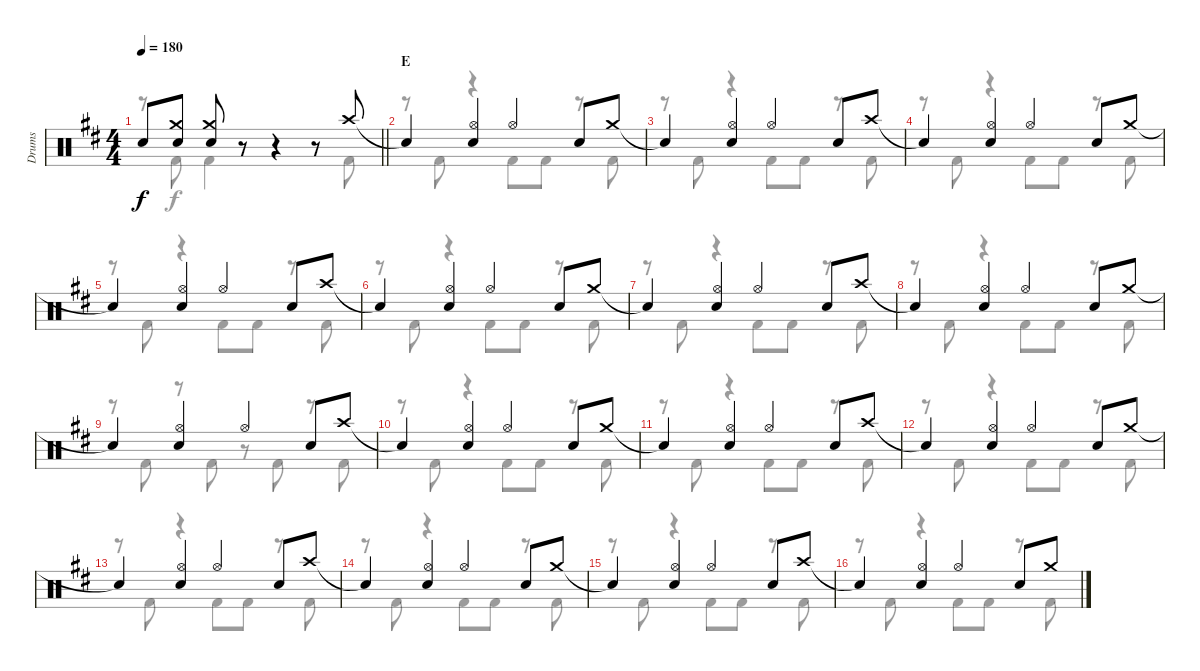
\track ("Drums" "Drums") {instrument percussion}
\staff {score}
\articulation defaults
\voice
\ts (4 4)
\tempo 180
\clef neutral
\barLineRight lightlight
\ks d "Snare (hit)"{t}.8{dy f}
("Crash medium (hit)" "Snare (hit) 2").8 ("Crash medium (hit)" "Snare (hit) 2").8 r.8 r.4 r.8 "Crash high (hit)".8 |
\section ("" "E")
"Snare (hit)"{t}.4 ("Hi-Hat (open)" "Snare (hit) 2").4 "Hi-Hat (open)".4 "Snare (hit) 2".8 "Crash medium (hit)".8 |
"Snare (hit)"{t}.4 ("Hi-Hat (open)" "Snare (hit) 2").4 "Hi-Hat (open)".4 "Snare (hit) 2".8 "Crash high (hit)".8 |
"Snare (hit)"{t}.4 ("Hi-Hat (open)" "Snare (hit) 2").4 "Hi-Hat (open)".4 "Snare (hit) 2".8 "Crash medium (hit)".8 |
"Snare (hit)"{t}.4 ("Hi-Hat (open)" "Snare (hit) 2").4 "Hi-Hat (open)".4 "Snare (hit) 2".8 "Crash high (hit)".8 |
"Snare (hit)"{t}.4 ("Hi-Hat (open)" "Snare (hit) 2").4 "Hi-Hat (open)".4 "Snare (hit) 2".8 "Crash medium (hit)".8 |
"Snare (hit)"{t}.4 ("Hi-Hat (open)" "Snare (hit) 2").4 "Hi-Hat (open)".4 "Snare (hit) 2".8 "Crash high (hit)".8 |
"Snare (hit)"{t}.4 ("Hi-Hat (open)" "Snare (hit) 2").4 "Hi-Hat (open)".4 "Snare (hit) 2".8 "Crash medium (hit)".8 |
"Snare (hit)"{t}.4 ("Hi-Hat (open)" "Snare (hit) 2").4 "Hi-Hat (open)".4 "Snare (hit) 2".8 "Crash high (hit)".8 |
"Snare (hit)"{t}.4 ("Hi-Hat (open)" "Snare (hit) 2").4 "Hi-Hat (open)".4 "Snare (hit) 2".8 "Crash medium (hit)".8 |
"Snare (hit)"{t}.4 ("Hi-Hat (open)" "Snare (hit) 2").4 "Hi-Hat (open)".4 "Snare (hit) 2".8 "Crash high (hit)".8 |
"Snare (hit)"{t}.4 ("Hi-Hat (open)" "Snare (hit) 2").4 "Hi-Hat (open)".4 "Snare (hit) 2".8 "Crash medium (hit)".8 |
"Snare (hit)"{t}.4 ("Hi-Hat (open)" "Snare (hit) 2").4 "Hi-Hat (open)".4 "Snare (hit) 2".8 "Crash high (hit)".8 |
"Snare (hit)"{t}.4 ("Hi-Hat (open)" "Snare (hit) 2").4 "Hi-Hat (open)".4 "Snare (hit) 2".8 "Crash medium (hit)".8 |
"Snare (hit)"{t}.4 ("Hi-Hat (open)" "Snare (hit) 2").4 "Hi-Hat (open)".4 "Snare (hit) 2".8 "Crash high (hit)".8 |
"Snare (hit)"{t}.4 ("Hi-Hat (open)" "Snare (hit) 2").4 "Hi-Hat (open)".4 "Snare (hit) 2".8 "Crash medium (hit)".8
\voice
\clef neutral
\ottava regular
\simile none
\barLineRight lightlight
\ks d
r.8{dy f} "Kick (hit) 2".8 "Kick (hit) 2".4 r.4 r.8 "Kick (hit) 2".8 |
r.8 "Kick (hit) 2".8 r.4 "Kick (hit) 2".8 "Kick (hit) 2".8 r.8 "Kick (hit) 2".8 |
r.8 "Kick (hit) 2".8 r.4 "Kick (hit) 2".8 "Kick (hit) 2".8 r.8 "Kick (hit) 2".8 |
r.8 "Kick (hit) 2".8 r.4 "Kick (hit) 2".8 "Kick (hit) 2".8 r.8 "Kick (hit) 2".8 |
r.8 "Kick (hit) 2".8 r.4 "Kick (hit) 2".8 "Kick (hit) 2".8 r.8 "Kick (hit) 2".8 |
r.8 "Kick (hit) 2".8 r.4 "Kick (hit) 2".8 "Kick (hit) 2".8 r.8 "Kick (hit) 2".8 |
r.8 "Kick (hit) 2".8 r.4 "Kick (hit) 2".8 "Kick (hit) 2".8 r.8 "Kick (hit) 2".8 |
r.8 "Kick (hit) 2".8 r.4 "Kick (hit) 2".8 "Kick (hit) 2".8 r.8 "Kick (hit) 2".8 |
r.8 "Kick (hit) 2".8 r.8 "Kick (hit) 2".8 r.8 "Kick (hit) 2".8 r.8 "Kick (hit) 2".8 |
r.8 "Kick (hit) 2".8 r.4 "Kick (hit) 2".8 "Kick (hit) 2".8 r.8 "Kick (hit) 2".8 |
r.8 "Kick (hit) 2".8 r.4 "Kick (hit) 2".8 "Kick (hit) 2".8 r.8 "Kick (hit) 2".8 |
r.8 "Kick (hit) 2".8 r.4 "Kick (hit) 2".8 "Kick (hit) 2".8 r.8 "Kick (hit) 2".8 |
r.8 "Kick (hit) 2".8 r.4 "Kick (hit) 2".8 "Kick (hit) 2".8 r.8 "Kick (hit) 2".8 |
r.8 "Kick (hit) 2".8 r.4 "Kick (hit) 2".8 "Kick (hit) 2".8 r.8 "Kick (hit) 2".8 |
r.8 "Kick (hit) 2".8 r.4 "Kick (hit) 2".8 "Kick (hit) 2".8 r.8 "Kick (hit) 2".8 |
r.8 "Kick (hit) 2".8 r.4 "Kick (hit) 2".8 "Kick (hit) 2".8 r.8 "Kick (hit) 2".8
